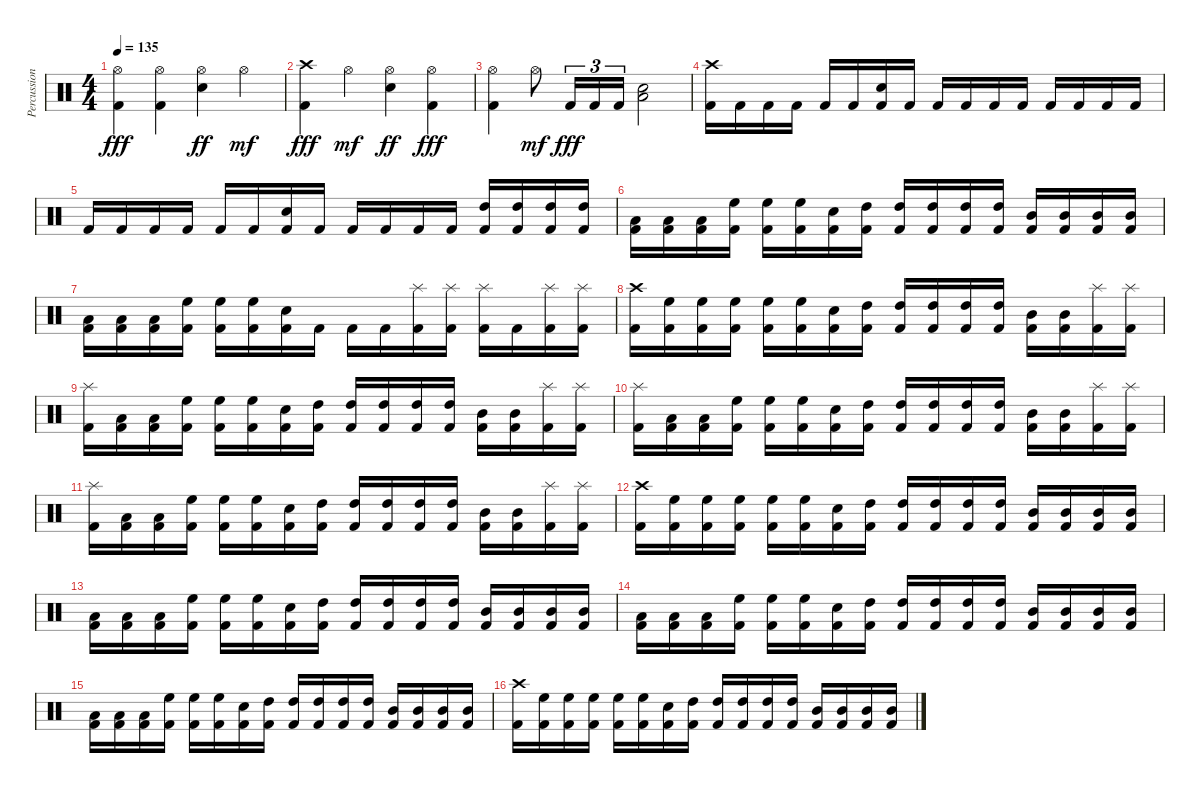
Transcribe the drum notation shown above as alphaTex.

\track ("Percussion" "Percussion") {instrument percussion}
\staff {score}
\articulation defaults
\ts (4 4)
\tempo 135
\clef neutral
\ks c
("Hi-Hat (open)" "Kick (hit) 2").4{dy fff} ("Hi-Hat (open)" "Kick (hit) 2").4 ("Hi-Hat (open)" "Snare (hit) 2").4{dy ff} "Hi-Hat (open)".4{dy mf} |
("Crash high (hit)" "Kick (hit) 2").4{dy fff} "Hi-Hat (open)".4{dy mf} ("Hi-Hat (open)" "Snare (hit) 2").4{dy ff} ("Hi-Hat (open)" "Kick (hit) 2").4{dy fff} |
("Hi-Hat (open)" "Kick (hit) 2").4 "Hi-Hat (open)".8{dy mf} "Kick (hit) 2".16{tu (3 2) dy fff} "Kick (hit) 2".16{tu (3 2)} "Kick (hit) 2".16{tu (3 2)} ("Snare (hit) 2" "Low Floor Tom (hit)").2 |
("Crash high (hit)" "Kick (hit) 2").16 "Kick (hit) 2".16 "Kick (hit) 2".16 "Kick (hit) 2".16 "Kick (hit) 2".16 "Kick (hit) 2".16 ("Snare (hit) 2" "Kick (hit) 2").16 "Kick (hit) 2".16 "Kick (hit) 2".16 "Kick (hit) 2".16 "Kick (hit) 2".16 "Kick (hit) 2".16 "Kick (hit) 2".16 "Kick (hit) 2".16 "Kick (hit) 2".16 "Kick (hit) 2".16 |
"Kick (hit) 2".16 "Kick (hit) 2".16 "Kick (hit) 2".16 "Kick (hit) 2".16 "Kick (hit) 2".16 "Kick (hit) 2".16 ("Snare (hit) 2" "Kick (hit) 2").16 "Kick (hit) 2".16 "Kick (hit) 2".16 "Kick (hit) 2".16 "Kick (hit) 2".16 "Kick (hit) 2".16 ("High Tom (hit)" "Kick (hit) 2").16 ("High Tom (hit)" "Kick (hit) 2").16 ("High Tom (hit)" "Kick (hit) 2").16 ("High Tom (hit)" "Kick (hit) 2").16 |
("Low Tom (hit)" "Kick (hit) 2").16 ("Low Tom (hit)" "Kick (hit) 2").16 ("Low Tom (hit)" "Kick (hit) 2").16 ("High Floor Tom (hit)" "Kick (hit) 2").16 ("High Floor Tom (hit)" "Kick (hit) 2").16 ("High Floor Tom (hit)" "Kick (hit) 2").16 ("Snare (hit) 2" "Kick (hit) 2").16 ("High Tom (hit)" "Kick (hit) 2").16 ("High Tom (hit)" "Kick (hit) 2").16 ("High Tom (hit)" "Kick (hit) 2").16 ("High Tom (hit)" "Kick (hit) 2").16 ("High Tom (hit)" "Kick (hit) 2").16 ("Mid Tom (hit)" "Kick (hit) 2").16 ("Mid Tom (hit)" "Kick (hit) 2").16 ("Mid Tom (hit)" "Kick (hit) 2").16 ("Mid Tom (hit)" "Kick (hit) 2").16 |
("Low Tom (hit)" "Kick (hit) 2").16 ("Low Tom (hit)" "Kick (hit) 2").16 ("Low Tom (hit)" "Kick (hit) 2").16 ("High Floor Tom (hit)" "Kick (hit) 2").16 ("High Floor Tom (hit)" "Kick (hit) 2").16 ("High Floor Tom (hit)" "Kick (hit) 2").16 ("Snare (hit) 2" "Kick (hit) 2").16 "Kick (hit) 2".16 "Kick (hit) 2".16 "Kick (hit) 2".16 ("Splash (hit)" "Kick (hit) 2").16 ("Splash (hit)" "Kick (hit) 2").16 ("Splash (hit)" "Kick (hit) 2").16 "Kick (hit) 2".16 ("Splash (hit)" "Kick (hit) 2").16 ("Splash (hit)" "Kick (hit) 2").16 |
("Crash high (hit)" "Kick (hit) 2").16 ("High Floor Tom (hit)" "Kick (hit) 2").16 ("High Floor Tom (hit)" "Kick (hit) 2").16 ("High Floor Tom (hit)" "Kick (hit) 2").16 ("High Floor Tom (hit)" "Kick (hit) 2").16 ("High Floor Tom (hit)" "Kick (hit) 2").16 ("Snare (hit) 2" "Kick (hit) 2").16 ("High Tom (hit)" "Kick (hit) 2").16 ("High Tom (hit)" "Kick (hit) 2").16 ("High Tom (hit)" "Kick (hit) 2").16 ("High Tom (hit)" "Kick (hit) 2").16 ("High Tom (hit)" "Kick (hit) 2").16 ("Mid Tom (hit)" "Kick (hit) 2").16 ("Mid Tom (hit)" "Kick (hit) 2").16 ("Splash (hit)" "Kick (hit) 2").16 ("Splash (hit)" "Kick (hit) 2").16 |
("Splash (hit)" "Kick (hit) 2").16 ("Low Tom (hit)" "Kick (hit) 2").16 ("Low Tom (hit)" "Kick (hit) 2").16 ("High Floor Tom (hit)" "Kick (hit) 2").16 ("High Floor Tom (hit)" "Kick (hit) 2").16 ("High Floor Tom (hit)" "Kick (hit) 2").16 ("Snare (hit) 2" "Kick (hit) 2").16 ("High Tom (hit)" "Kick (hit) 2").16 ("High Tom (hit)" "Kick (hit) 2").16 ("High Tom (hit)" "Kick (hit) 2").16 ("High Tom (hit)" "Kick (hit) 2").16 ("High Tom (hit)" "Kick (hit) 2").16 ("Mid Tom (hit)" "Kick (hit) 2").16 ("Mid Tom (hit)" "Kick (hit) 2").16 ("Splash (hit)" "Kick (hit) 2").16 ("Splash (hit)" "Kick (hit) 2").16 |
("Splash (hit)" "Kick (hit) 2").16 ("Low Tom (hit)" "Kick (hit) 2").16 ("Low Tom (hit)" "Kick (hit) 2").16 ("High Floor Tom (hit)" "Kick (hit) 2").16 ("High Floor Tom (hit)" "Kick (hit) 2").16 ("High Floor Tom (hit)" "Kick (hit) 2").16 ("Snare (hit) 2" "Kick (hit) 2").16 ("High Tom (hit)" "Kick (hit) 2").16 ("High Tom (hit)" "Kick (hit) 2").16 ("High Tom (hit)" "Kick (hit) 2").16 ("High Tom (hit)" "Kick (hit) 2").16 ("High Tom (hit)" "Kick (hit) 2").16 ("Mid Tom (hit)" "Kick (hit) 2").16 ("Mid Tom (hit)" "Kick (hit) 2").16 ("Splash (hit)" "Kick (hit) 2").16 ("Splash (hit)" "Kick (hit) 2").16 |
("Splash (hit)" "Kick (hit) 2").16 ("Low Tom (hit)" "Kick (hit) 2").16 ("Low Tom (hit)" "Kick (hit) 2").16 ("High Floor Tom (hit)" "Kick (hit) 2").16 ("High Floor Tom (hit)" "Kick (hit) 2").16 ("High Floor Tom (hit)" "Kick (hit) 2").16 ("Snare (hit) 2" "Kick (hit) 2").16 ("High Tom (hit)" "Kick (hit) 2").16 ("High Tom (hit)" "Kick (hit) 2").16 ("High Tom (hit)" "Kick (hit) 2").16 ("High Tom (hit)" "Kick (hit) 2").16 ("High Tom (hit)" "Kick (hit) 2").16 ("Mid Tom (hit)" "Kick (hit) 2").16 ("Mid Tom (hit)" "Kick (hit) 2").16 ("Splash (hit)" "Kick (hit) 2").16 ("Splash (hit)" "Kick (hit) 2").16 |
("Crash high (hit)" "Kick (hit) 2").16 ("High Floor Tom (hit)" "Kick (hit) 2").16 ("High Floor Tom (hit)" "Kick (hit) 2").16 ("High Floor Tom (hit)" "Kick (hit) 2").16 ("High Floor Tom (hit)" "Kick (hit) 2").16 ("High Floor Tom (hit)" "Kick (hit) 2").16 ("Snare (hit) 2" "Kick (hit) 2").16 ("High Tom (hit)" "Kick (hit) 2").16 ("High Tom (hit)" "Kick (hit) 2").16 ("High Tom (hit)" "Kick (hit) 2").16 ("High Tom (hit)" "Kick (hit) 2").16 ("High Tom (hit)" "Kick (hit) 2").16 ("Mid Tom (hit)" "Kick (hit) 2").16 ("Mid Tom (hit)" "Kick (hit) 2").16 ("Mid Tom (hit)" "Kick (hit) 2").16 ("Mid Tom (hit)" "Kick (hit) 2").16 |
("Low Tom (hit)" "Kick (hit) 2").16 ("Low Tom (hit)" "Kick (hit) 2").16 ("Low Tom (hit)" "Kick (hit) 2").16 ("High Floor Tom (hit)" "Kick (hit) 2").16 ("High Floor Tom (hit)" "Kick (hit) 2").16 ("High Floor Tom (hit)" "Kick (hit) 2").16 ("Snare (hit) 2" "Kick (hit) 2").16 ("High Tom (hit)" "Kick (hit) 2").16 ("High Tom (hit)" "Kick (hit) 2").16 ("High Tom (hit)" "Kick (hit) 2").16 ("High Tom (hit)" "Kick (hit) 2").16 ("High Tom (hit)" "Kick (hit) 2").16 ("Mid Tom (hit)" "Kick (hit) 2").16 ("Mid Tom (hit)" "Kick (hit) 2").16 ("Mid Tom (hit)" "Kick (hit) 2").16 ("Mid Tom (hit)" "Kick (hit) 2").16 |
("Low Tom (hit)" "Kick (hit) 2").16 ("Low Tom (hit)" "Kick (hit) 2").16 ("Low Tom (hit)" "Kick (hit) 2").16 ("High Floor Tom (hit)" "Kick (hit) 2").16 ("High Floor Tom (hit)" "Kick (hit) 2").16 ("High Floor Tom (hit)" "Kick (hit) 2").16 ("Snare (hit) 2" "Kick (hit) 2").16 ("High Tom (hit)" "Kick (hit) 2").16 ("High Tom (hit)" "Kick (hit) 2").16 ("High Tom (hit)" "Kick (hit) 2").16 ("High Tom (hit)" "Kick (hit) 2").16 ("High Tom (hit)" "Kick (hit) 2").16 ("Mid Tom (hit)" "Kick (hit) 2").16 ("Mid Tom (hit)" "Kick (hit) 2").16 ("Mid Tom (hit)" "Kick (hit) 2").16 ("Mid Tom (hit)" "Kick (hit) 2").16 |
("Low Tom (hit)" "Kick (hit) 2").16 ("Low Tom (hit)" "Kick (hit) 2").16 ("Low Tom (hit)" "Kick (hit) 2").16 ("High Floor Tom (hit)" "Kick (hit) 2").16 ("High Floor Tom (hit)" "Kick (hit) 2").16 ("High Floor Tom (hit)" "Kick (hit) 2").16 ("Snare (hit) 2" "Kick (hit) 2").16 ("High Tom (hit)" "Kick (hit) 2").16 ("High Tom (hit)" "Kick (hit) 2").16 ("High Tom (hit)" "Kick (hit) 2").16 ("High Tom (hit)" "Kick (hit) 2").16 ("High Tom (hit)" "Kick (hit) 2").16 ("Mid Tom (hit)" "Kick (hit) 2").16 ("Mid Tom (hit)" "Kick (hit) 2").16 ("Mid Tom (hit)" "Kick (hit) 2").16 ("Mid Tom (hit)" "Kick (hit) 2").16 |
("Crash high (hit)" "Kick (hit) 2").16 ("High Floor Tom (hit)" "Kick (hit) 2").16 ("High Floor Tom (hit)" "Kick (hit) 2").16 ("High Floor Tom (hit)" "Kick (hit) 2").16 ("High Floor Tom (hit)" "Kick (hit) 2").16 ("High Floor Tom (hit)" "Kick (hit) 2").16 ("Snare (hit) 2" "Kick (hit) 2").16 ("High Tom (hit)" "Kick (hit) 2").16 ("High Tom (hit)" "Kick (hit) 2").16 ("High Tom (hit)" "Kick (hit) 2").16 ("High Tom (hit)" "Kick (hit) 2").16 ("High Tom (hit)" "Kick (hit) 2").16 ("Mid Tom (hit)" "Kick (hit) 2").16 ("Mid Tom (hit)" "Kick (hit) 2").16 ("Mid Tom (hit)" "Kick (hit) 2").16 ("Mid Tom (hit)" "Kick (hit) 2").16
